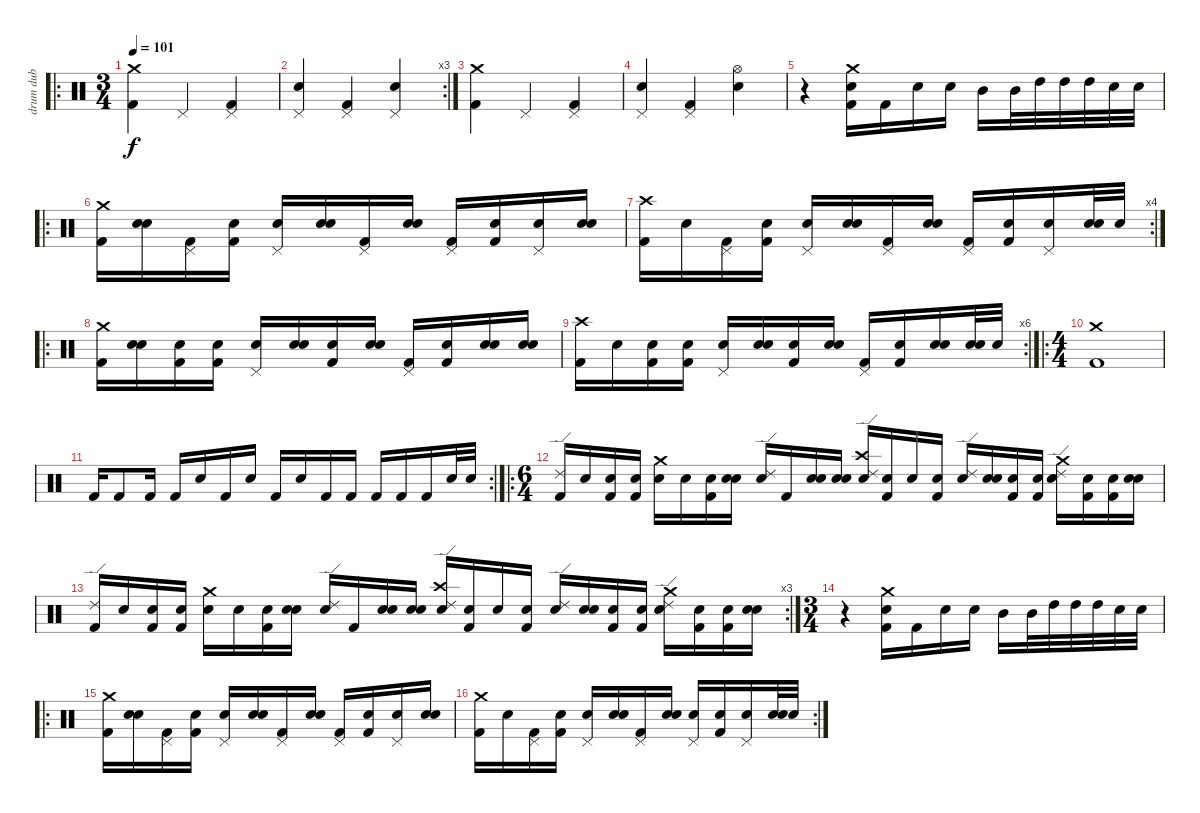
\track ("drum dub" "drum dub") {instrument percussion}
\staff {score}
\articulation defaults
\ro
\ts (3 4)
\tempo 101
\clef neutral
\ks c
("Crash medium (hit)" "Kick (hit) 2").4{dy f} "Pedal Hi-Hat (hit)".4 ("Pedal Hi-Hat (hit)" "Kick (hit) 2").4 |
\rc 3
("Pedal Hi-Hat (hit)" "Snare (hit)").4 ("Pedal Hi-Hat (hit)" "Kick (hit) 2").4 ("Pedal Hi-Hat (hit)" "Snare (hit)").4 |
("Crash medium (hit)" "Kick (hit) 2").4 "Pedal Hi-Hat (hit)".4 ("Pedal Hi-Hat (hit)" "Kick (hit) 2").4 |
("Pedal Hi-Hat (hit)" "Snare (hit)").4 ("Pedal Hi-Hat (hit)" "Kick (hit) 2").4 ("Hi-Hat (open)" "Snare (hit)").4 |
r.4 ("Crash medium (hit)" "Kick (hit) 2" "Electric Snare (hit)").16 "Kick (hit) 2".16 "Electric Snare (hit)".16 "Electric Snare (hit)".16 "Mid Tom (hit)".16 "Mid Tom (hit)".32 "High Tom (hit)".32 "High Tom (hit)".32 "High Tom (hit)".32 "Electric Snare (hit)".32 "Electric Snare (hit)".32 |
\ro
("Crash medium (hit)" "Kick (hit) 2").16 ("Snare (hit)" "Snare (hit)").16 ("Pedal Hi-Hat (hit)" "Kick (hit) 2").16 ("Snare (hit)" "Kick (hit) 2").16 ("Pedal Hi-Hat (hit)" "Electric Snare (hit)").16 ("Snare (hit)" "Snare (hit)").16 ("Pedal Hi-Hat (hit)" "Kick (hit) 2").16 ("Snare (hit)" "Snare (hit)").16 ("Pedal Hi-Hat (hit)" "Kick (hit) 2").16 ("Snare (hit)" "Kick (hit) 2").16 ("Pedal Hi-Hat (hit)" "Electric Snare (hit)").16 ("Snare (hit)" "Electric Snare (hit)").16 |
\rc 4
("Crash high (hit)" "Kick (hit) 2").16 "Snare (hit)".16 ("Pedal Hi-Hat (hit)" "Kick (hit) 2").16 ("Snare (hit)" "Kick (hit) 2").16 ("Pedal Hi-Hat (hit)" "Electric Snare (hit)").16 ("Snare (hit)" "Snare (hit)").16 ("Pedal Hi-Hat (hit)" "Kick (hit) 2").16 ("Snare (hit)" "Snare (hit)").16 ("Pedal Hi-Hat (hit)" "Kick (hit) 2").16 ("Snare (hit)" "Kick (hit) 2").16 ("Pedal Hi-Hat (hit)" "Electric Snare (hit)").16 ("Snare (hit)" "Electric Snare (hit)").32 "Electric Snare (hit)".32 |
\ro
("Crash medium (hit)" "Kick (hit) 2").16 ("Snare (hit)" "Snare (hit)").16 ("Snare (hit)" "Kick (hit) 2").16 ("Snare (hit)" "Kick (hit) 2").16 ("Pedal Hi-Hat (hit)" "Electric Snare (hit)").16 ("Snare (hit)" "Snare (hit)").16 ("Snare (hit)" "Kick (hit) 2").16 ("Snare (hit)" "Snare (hit)").16 ("Pedal Hi-Hat (hit)" "Kick (hit) 2").16 ("Snare (hit)" "Kick (hit) 2").16 ("Snare (hit)" "Electric Snare (hit)").16 ("Snare (hit)" "Electric Snare (hit)").16 |
\rc 6
("Crash high (hit)" "Kick (hit) 2").16 "Snare (hit)".16 ("Snare (hit)" "Kick (hit) 2").16 ("Snare (hit)" "Kick (hit) 2").16 ("Pedal Hi-Hat (hit)" "Electric Snare (hit)").16 ("Snare (hit)" "Snare (hit)").16 ("Snare (hit)" "Kick (hit) 2").16 ("Snare (hit)" "Snare (hit)").16 ("Pedal Hi-Hat (hit)" "Kick (hit) 2").16 ("Snare (hit)" "Kick (hit) 2").16 ("Snare (hit)" "Electric Snare (hit)").16 ("Snare (hit)" "Electric Snare (hit)").32 "Electric Snare (hit)".32 |
\ro
\ts (4 4)
("Crash medium (hit)" "Kick (hit) 2").1 |
\rc 2 "Kick (hit) 2".16 "Kick (hit) 2".8 "Kick (hit) 2".16 "Kick (hit) 2".16 "Electric Snare (hit)".16 "Kick (hit) 2".16 "Snare (hit)".16 "Kick (hit) 2".16 "Snare (hit)".16 "Kick (hit) 2".16 "Kick (hit) 2".16 "Kick (hit) 2".16 "Kick (hit) 2".16 "Kick (hit) 2".16 "Electric Snare (hit)".32 "Electric Snare (hit)".32
|
\ro
\ts (6 4)
("Ride (edge) 2" "Kick (hit) 2").16 "Snare (hit)".16 ("Snare (hit)" "Kick (hit) 2").16 ("Snare (hit)" "Kick (hit) 2").16 ("Crash medium (hit)" "Electric Snare (hit)").16 "Snare (hit)".16 ("Snare (hit)" "Kick (hit) 2").16 ("Snare (hit)" "Snare (hit)").16 ("Ride (edge) 2" "Snare (hit)").16 "Kick (hit) 2".16 ("Snare (hit)" "Snare (hit)").16 ("Snare (hit)" "Snare (hit)").16 ("Crash high (hit)" "Electric Snare (hit)" "Ride (edge) 2").16 ("Snare (hit)" "Kick (hit) 2").16 "Snare (hit)".16 ("Snare (hit)" "Kick (hit) 2").16 ("Snare (hit)" "Ride (edge) 2").16 ("Snare (hit)" "Snare (hit)").16 ("Snare (hit)" "Kick (hit) 2").16 ("Snare (hit)" "Kick (hit) 2").16 ("Crash medium (hit)" "Electric Snare (hit)" "Ride (edge) 2").16 ("Snare (hit)" "Kick (hit) 2").16 ("Snare (hit)" "Kick (hit) 2").16 ("Snare (hit)" "Snare (hit)").16 |
\rc 3
("Ride (edge) 2" "Kick (hit) 2").16 "Snare (hit)".16 ("Snare (hit)" "Kick (hit) 2").16 ("Snare (hit)" "Kick (hit) 2").16 ("Crash medium (hit)" "Electric Snare (hit)").16 "Snare (hit)".16 ("Snare (hit)" "Kick (hit) 2").16 ("Snare (hit)" "Snare (hit)").16 ("Ride (edge) 2" "Snare (hit)").16 "Kick (hit) 2".16 ("Snare (hit)" "Snare (hit)").16 ("Snare (hit)" "Snare (hit)").16 ("Crash high (hit)" "Electric Snare (hit)" "Ride (edge) 2").16 ("Snare (hit)" "Kick (hit) 2").16 "Snare (hit)".16 ("Snare (hit)" "Kick (hit) 2").16 ("Snare (hit)" "Ride (edge) 2").16 ("Snare (hit)" "Snare (hit)").16 ("Snare (hit)" "Kick (hit) 2").16 ("Snare (hit)" "Kick (hit) 2").16 ("Crash medium (hit)" "Electric Snare (hit)" "Ride (edge) 2").16 ("Snare (hit)" "Kick (hit) 2").16 ("Snare (hit)" "Kick (hit) 2").16 ("Snare (hit)" "Snare (hit)").16 |
\ts (3 4)
r.4 ("Crash medium (hit)" "Kick (hit) 2" "Electric Snare (hit)").16 "Kick (hit) 2".16 "Electric Snare (hit)".16 "Electric Snare (hit)".16 "Mid Tom (hit)".16 "Mid Tom (hit)".32 "High Tom (hit)".32 "High Tom (hit)".32 "High Tom (hit)".32 "Electric Snare (hit)".32 "Electric Snare (hit)".32 |
\ro
("Crash medium (hit)" "Kick (hit) 2").16 ("Snare (hit)" "Snare (hit)").16 ("Pedal Hi-Hat (hit)" "Kick (hit) 2").16 ("Snare (hit)" "Kick (hit) 2").16 ("Pedal Hi-Hat (hit)" "Electric Snare (hit)").16 ("Snare (hit)" "Snare (hit)").16 ("Pedal Hi-Hat (hit)" "Kick (hit) 2").16 ("Snare (hit)" "Snare (hit)").16 ("Pedal Hi-Hat (hit)" "Kick (hit) 2").16 ("Snare (hit)" "Kick (hit) 2").16 ("Pedal Hi-Hat (hit)" "Electric Snare (hit)").16 ("Snare (hit)" "Electric Snare (hit)").16 |
\rc 2
("Crash medium (hit)" "Kick (hit) 2").16 "Snare (hit)".16 ("Pedal Hi-Hat (hit)" "Kick (hit) 2").16 ("Snare (hit)" "Kick (hit) 2").16 ("Pedal Hi-Hat (hit)" "Electric Snare (hit)").16 ("Snare (hit)" "Snare (hit)").16 ("Pedal Hi-Hat (hit)" "Kick (hit) 2").16 ("Snare (hit)" "Snare (hit)").16 ("Pedal Hi-Hat (hit)" "Snare (hit)").16 ("Snare (hit)" "Kick (hit) 2").16 ("Pedal Hi-Hat (hit)" "Electric Snare (hit)").16 ("Snare (hit)" "Electric Snare (hit)").32 "Electric Snare (hit)".32
